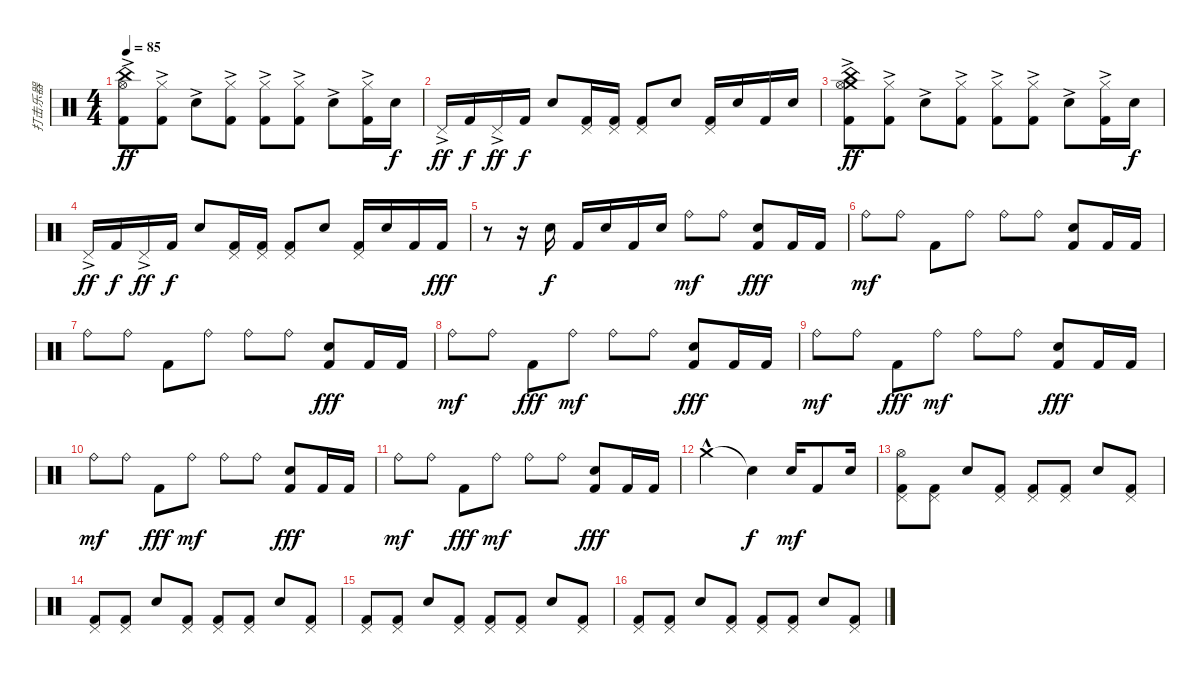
\track ("打击乐器" "打击乐器") {instrument percussion}
\staff {score}
\articulation defaults
\ts (4 4)
\tempo 85
\clef neutral
\ks c
("China (hit)" "Hi-Hat (open)" "Kick (hit) 2"{ac}).8{dy ff volume 16} ("Hi-Hat (closed)" "Kick (hit) 2"{ac}).8 "Electric Snare (hit)"{ac}.8 ("Hi-Hat (closed)" "Kick (hit) 2"{ac}).8 ("Hi-Hat (closed)" "Kick (hit) 2"{ac}).8 ("Hi-Hat (closed)" "Kick (hit) 2"{ac}).8 "Electric Snare (hit)"{ac}.8 ("Hi-Hat (closed)" "Kick (hit) 2"{ac}).16 "Electric Snare (hit)".16{dy f} |
"Pedal Hi-Hat (hit)"{ac}.16{dy ff} "Kick (hit) 2".16{dy f} "Pedal Hi-Hat (hit)"{ac}.16{dy ff} "Kick (hit) 2".16{dy f} "Electric Snare (hit)".8 ("Pedal Hi-Hat (hit)" "Kick (hit) 2").16 ("Pedal Hi-Hat (hit)" "Kick (hit) 2").16 ("Pedal Hi-Hat (hit)" "Kick (hit) 2").8 "Electric Snare (hit)".8 ("Pedal Hi-Hat (hit)" "Kick (hit) 2").16 "Electric Snare (hit)".16 "Kick (hit) 2".16 "Electric Snare (hit)".16 |
("Crash medium (hit)" "China (hit)"{ac} "Hi-Hat (open)" "Kick (hit) 2"{ac}).8{dy ff} ("Hi-Hat (closed)" "Kick (hit) 2"{ac}).8 "Electric Snare (hit)"{ac}.8 ("Hi-Hat (closed)" "Kick (hit) 2"{ac}).8 ("Hi-Hat (closed)" "Kick (hit) 2"{ac}).8 ("Hi-Hat (closed)" "Kick (hit) 2"{ac}).8 "Electric Snare (hit)"{ac}.8 ("Hi-Hat (closed)" "Kick (hit) 2"{ac}).16 "Electric Snare (hit)".16{dy f} |
"Pedal Hi-Hat (hit)"{ac}.16{dy ff} "Kick (hit) 2".16{dy f} "Pedal Hi-Hat (hit)"{ac}.16{dy ff} "Kick (hit) 2".16{dy f} "Electric Snare (hit)".8 ("Pedal Hi-Hat (hit)" "Kick (hit) 2").16 ("Pedal Hi-Hat (hit)" "Kick (hit) 2").16 ("Pedal Hi-Hat (hit)" "Kick (hit) 2").8 "Electric Snare (hit)".8 ("Pedal Hi-Hat (hit)" "Kick (hit) 2").16 "Electric Snare (hit)".16 "Kick (hit) 2".16 "Kick (hit) 2".16{dy fff} |
r.8 r.16 "Electric Snare (hit)".16{dy f} "Kick (hit) 2".16 "Electric Snare (hit)".16 "Kick (hit) 2".16 "Electric Snare (hit)".16 "Ride (bell)".8{dy mf} "Ride (bell)".8 ("Electric Snare (hit)" "Kick (hit) 2").8{dy fff} "Kick (hit) 2".16 "Kick (hit) 2".16 |
"Ride (bell)".8{dy mf} "Ride (bell)".8 "Kick (hit) 2".8 "Ride (bell)".8 "Ride (bell)".8 "Ride (bell)".8 ("Electric Snare (hit)" "Kick (hit) 2").8 "Kick (hit) 2".16 "Kick (hit) 2".16 |
"Ride (bell)".8 "Ride (bell)".8 "Kick (hit) 2".8 "Ride (bell)".8 "Ride (bell)".8 "Ride (bell)".8 ("Electric Snare (hit)" "Kick (hit) 2").8{dy fff} "Kick (hit) 2".16 "Kick (hit) 2".16 |
"Ride (bell)".8{dy mf} "Ride (bell)".8 "Kick (hit) 2".8{dy fff} "Ride (bell)".8{dy mf} "Ride (bell)".8 "Ride (bell)".8 ("Electric Snare (hit)" "Kick (hit) 2").8{dy fff} "Kick (hit) 2".16 "Kick (hit) 2".16 |
"Ride (bell)".8{dy mf} "Ride (bell)".8 "Kick (hit) 2".8{dy fff} "Ride (bell)".8{dy mf} "Ride (bell)".8 "Ride (bell)".8 ("Electric Snare (hit)" "Kick (hit) 2").8{dy fff} "Kick (hit) 2".16 "Kick (hit) 2".16 |
"Ride (bell)".8{dy mf} "Ride (bell)".8 "Kick (hit) 2".8{dy fff} "Ride (bell)".8{dy mf} "Ride (bell)".8 "Ride (bell)".8 ("Electric Snare (hit)" "Kick (hit) 2").8{dy fff} "Kick (hit) 2".16 "Kick (hit) 2".16 |
"Ride (bell)".8{dy mf} "Ride (bell)".8 "Kick (hit) 2".8{dy fff} "Ride (bell)".8{dy mf} "Ride (bell)".8 "Ride (bell)".8 ("Electric Snare (hit)" "Kick (hit) 2").8{dy fff} "Kick (hit) 2".16 "Kick (hit) 2".16 |
"Crash medium (hit)"{hac}.2 "Snare (hit)"{t}.4{dy f} "Electric Snare (hit)".16{dy mf} "Kick (hit) 2".8 "Electric Snare (hit)".16 |
("Hi-Hat (open)" "Pedal Hi-Hat (hit)" "Kick (hit) 2").8{volume 13} ("Pedal Hi-Hat (hit)" "Kick (hit) 2").8 "Electric Snare (hit)".8 ("Pedal Hi-Hat (hit)" "Kick (hit) 2").8 ("Pedal Hi-Hat (hit)" "Kick (hit) 2").8 ("Pedal Hi-Hat (hit)" "Kick (hit) 2").8 "Electric Snare (hit)".8 ("Pedal Hi-Hat (hit)" "Kick (hit) 2").8 |
("Pedal Hi-Hat (hit)" "Kick (hit) 2").8{volume 13} ("Pedal Hi-Hat (hit)" "Kick (hit) 2").8 "Electric Snare (hit)".8 ("Pedal Hi-Hat (hit)" "Kick (hit) 2").8 ("Pedal Hi-Hat (hit)" "Kick (hit) 2").8 ("Pedal Hi-Hat (hit)" "Kick (hit) 2").8 "Electric Snare (hit)".8 ("Pedal Hi-Hat (hit)" "Kick (hit) 2").8 |
("Pedal Hi-Hat (hit)" "Kick (hit) 2").8{volume 13} ("Pedal Hi-Hat (hit)" "Kick (hit) 2").8 "Electric Snare (hit)".8 ("Pedal Hi-Hat (hit)" "Kick (hit) 2").8 ("Pedal Hi-Hat (hit)" "Kick (hit) 2").8 ("Pedal Hi-Hat (hit)" "Kick (hit) 2").8 "Electric Snare (hit)".8 ("Pedal Hi-Hat (hit)" "Kick (hit) 2").8 |
("Pedal Hi-Hat (hit)" "Kick (hit) 2").8{volume 13} ("Pedal Hi-Hat (hit)" "Kick (hit) 2").8 "Electric Snare (hit)".8 ("Pedal Hi-Hat (hit)" "Kick (hit) 2").8 ("Pedal Hi-Hat (hit)" "Kick (hit) 2").8 ("Pedal Hi-Hat (hit)" "Kick (hit) 2").8 "Electric Snare (hit)".8 ("Pedal Hi-Hat (hit)" "Kick (hit) 2").8
